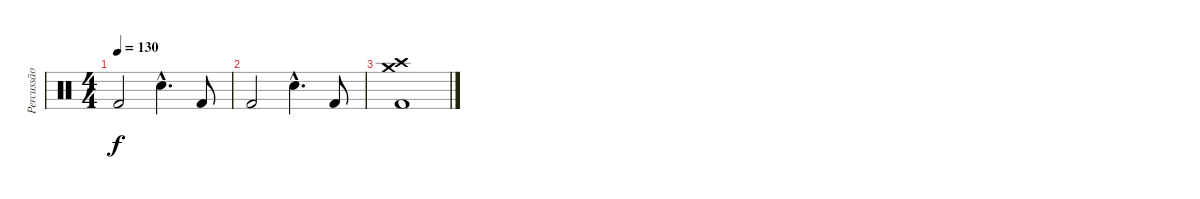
\track ("Percussão" "Percussão") {instrument percussion}
\staff {score}
\articulation defaults
\ts (4 4)
\tempo 130
\clef neutral
\ks c "Kick (hit) 2".2{dy f} "Snare (hit) 2"{hac}.4{d} "Kick (hit) 2".8
|
"Kick (hit) 2".2 "Snare (hit) 2"{hac}.4{d} "Kick (hit) 2".8 |
("Crash medium (hit)" "Kick (hit) 2" "Crash high (hit)").1
